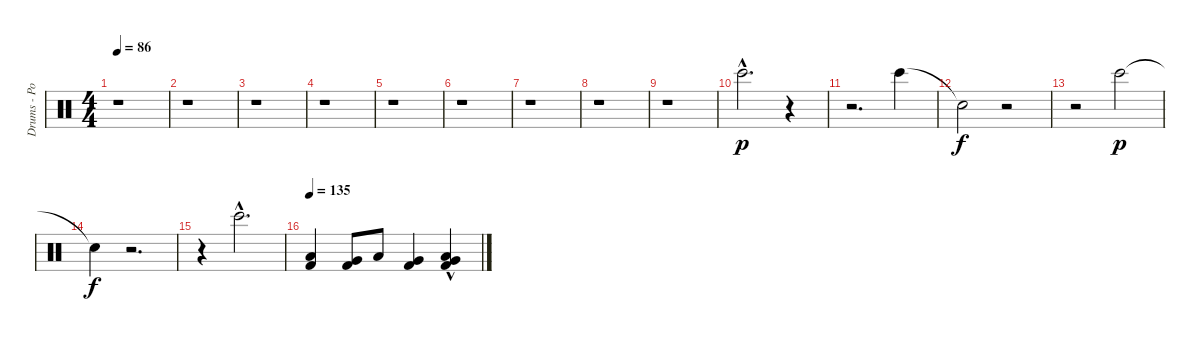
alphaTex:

\track ("Drums - Portnoy" "Drums - Po") {instrument percussion}
\staff {score}
\articulation defaults
\ts (4 4)
\tempo 86
\clef neutral
\ks c
r.1{dy p} |
r.1 |
r.1 |
r.1 |
r.1 |
r.1 |
r.1 |
r.1 |
r.1 |
"Bongo High (hit)"{hac}.2{d} r.4 |
r.2{d} "Bongo High (hit)".4 |
"Snare (hit)"{t}.2{dy f} r.2 |
r.2 "Bongo High (hit)".2{dy p} |
"Snare (hit)"{t}.4{dy f} r.2{d} |
r.4 "Bongo High (hit)"{hac}.2{d} |
\tempo 135
("Low Floor Tom (hit)" "Kick (hit) 2").4 ("Very Low Tom (hit)" "Kick (hit) 2").8 "Low Floor Tom (hit)".8 ("Very Low Tom (hit)" "Kick (hit) 2").4 ("Very Low Tom (hit)"{hac} "Low Floor Tom (hit)"{hac} "Kick (hit) 2").4
